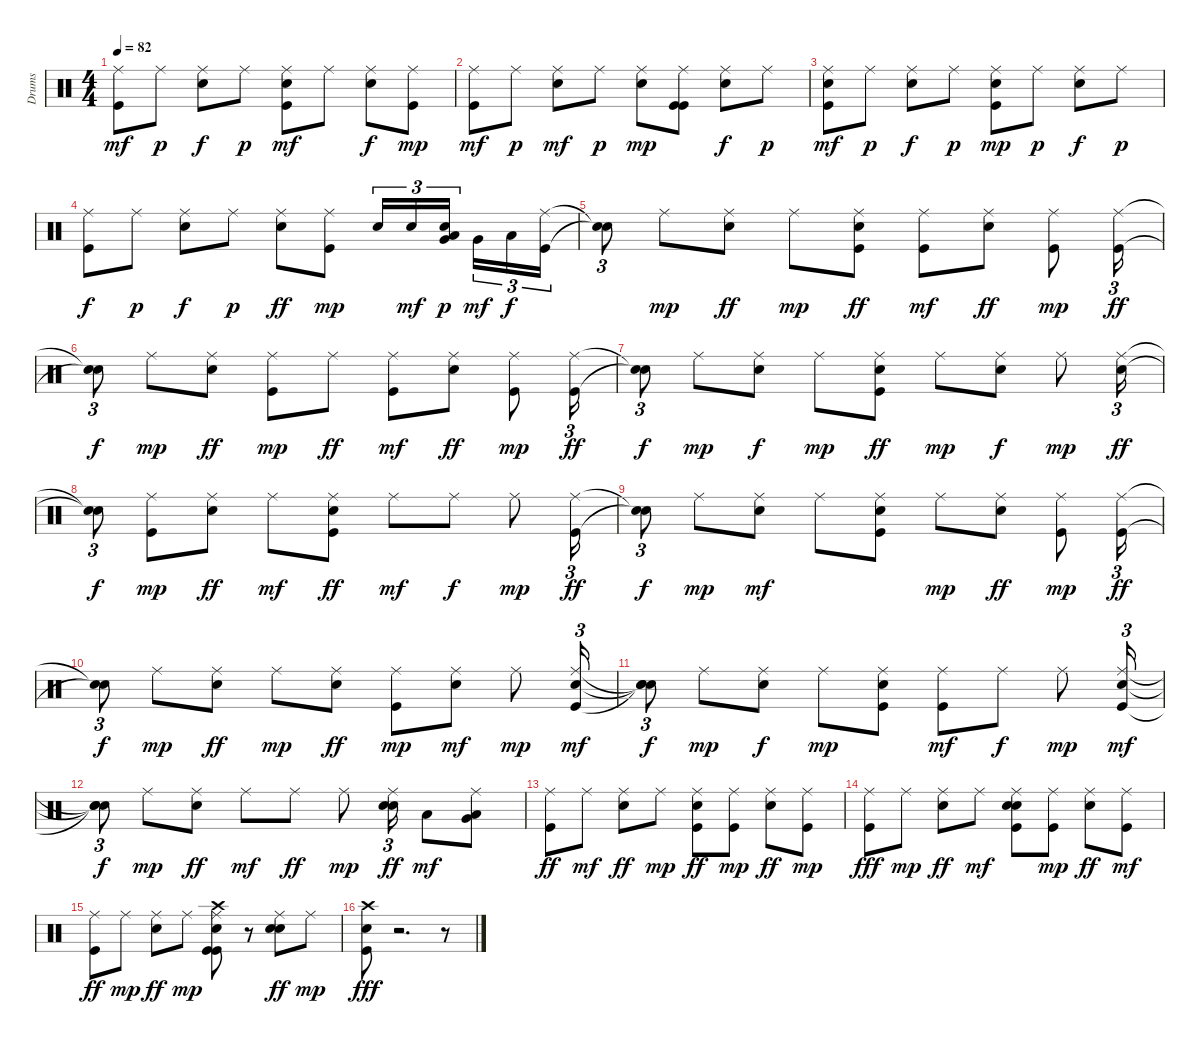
\track ("Drums" "Drums") {instrument percussion}
\staff {score}
\articulation defaults
\ts (4 4)
\tempo 82
\clef neutral
\ks c
("Kick (hit)" "Ride (middle)").8{dy mf} "Ride (middle)".8{dy p} ("Ride (middle)" "Electric Snare (hit)").8{dy f} "Ride (middle)".8{dy p} ("Electric Snare (hit)" "Ride (middle)" "Kick (hit)").8{dy mf} "Ride (middle)".8 ("Ride (middle)" "Electric Snare (hit)").8{dy f} ("Ride (middle)" "Kick (hit)").8{dy mp} |
("Ride (middle)" "Kick (hit)").8{dy mf} "Ride (middle)".8{dy p} ("Ride (middle)" "Electric Snare (hit)").8{dy mf} "Ride (middle)".8{dy p} ("Electric Snare (hit)" "Ride (middle)").8{dy mp} ("Kick (hit)" "Ride (middle)" "Kick (hit)").8 ("Electric Snare (hit)" "Ride (middle)").8{dy f} "Ride (middle)".8{dy p} |
("Electric Snare (hit)" "Ride (middle)" "Kick (hit)").8{dy mf} "Ride (middle)".8{dy p} ("Ride (middle)" "Electric Snare (hit)").8{dy f} "Ride (middle)".8{dy p} ("Electric Snare (hit)" "Ride (middle)" "Kick (hit)").8{dy mp} "Ride (middle)".8{dy p} ("Electric Snare (hit)" "Ride (middle)").8{dy f} "Ride (middle)".8{dy p} |
("Ride (middle)" "Kick (hit)").8{dy f} "Ride (middle)".8{dy p} ("Ride (middle)" "Electric Snare (hit)").8{dy f} "Ride (middle)".8{dy p} ("Electric Snare (hit)" "Ride (middle)").8{dy ff} ("Kick (hit)" "Ride (middle)").8{dy mp} "Electric Snare (hit)".16{tu (3 2)} "Electric Snare (hit)".16{tu (3 2) dy mf} ("Electric Snare (hit)" "Low Tom (hit)" "Very Low Tom (hit)").16{tu (3 2) dy p beam splitsecondary} "Very Low Tom (hit)".16{tu (3 2) dy mf} "Low Floor Tom (hit)".16{tu (3 2) dy f} ("Ride (middle)" "Kick (hit)").16{tu (3 2)} |
("Snare (hit)"{t} "Snare (hit)"{t}).8{tu (3 2)} "Ride (middle)".8{dy mp} ("Ride (middle)" "Electric Snare (hit)").8{dy ff} "Ride (middle)".8{dy mp} ("Electric Snare (hit)" "Kick (hit)" "Ride (middle)").8{dy ff} ("Kick (hit)" "Ride (middle)").8{dy mf} ("Electric Snare (hit)" "Ride (middle)").8{dy ff} ("Ride (middle)" "Kick (hit)").8{dy mp} ("Ride (middle)" "Kick (hit)").16{tu (3 2) dy ff} |
("Snare (hit)"{t} "Snare (hit)"{t}).8{tu (3 2) dy f} "Ride (middle)".8{dy mp} ("Ride (middle)" "Electric Snare (hit)").8{dy ff} ("Ride (middle)" "Kick (hit)").8{dy mp} "Ride (middle)".8{dy ff} ("Ride (middle)" "Kick (hit)").8{dy mf} ("Ride (middle)" "Electric Snare (hit)").8{dy ff} ("Kick (hit)" "Ride (middle)").8{dy mp} ("Ride (middle)" "Kick (hit)").16{tu (3 2) dy ff} |
("Snare (hit)"{t} "Snare (hit)"{t}).8{tu (3 2) dy f} "Ride (middle)".8{dy mp} ("Ride (middle)" "Electric Snare (hit)").8{dy f} "Ride (middle)".8{dy mp} ("Electric Snare (hit)" "Ride (middle)" "Kick (hit)").8{dy ff} "Ride (middle)".8{dy mp} ("Ride (middle)" "Electric Snare (hit)").8{dy f} "Ride (middle)".8{dy mp} ("Electric Snare (hit)" "Ride (middle)").16{tu (3 2) dy ff} |
("Snare (hit)"{t} "Snare (hit)"{t}).8{tu (3 2) dy f} ("Kick (hit)" "Ride (middle)").8{dy mp} ("Electric Snare (hit)" "Ride (middle)").8{dy ff} "Ride (middle)".8{dy mf} ("Electric Snare (hit)" "Ride (middle)" "Kick (hit)").8{dy ff} "Ride (middle)".8{dy mf} "Ride (middle)".8{dy f} "Ride (middle)".8{dy mp} ("Ride (middle)" "Kick (hit)").16{tu (3 2) dy ff} |
("Snare (hit)"{t} "Snare (hit)"{t}).8{tu (3 2) dy f} "Ride (middle)".8{dy mp} ("Ride (middle)" "Electric Snare (hit)").8{dy mf} "Ride (middle)".8 ("Electric Snare (hit)" "Ride (middle)" "Kick (hit)").8 "Ride (middle)".8{dy mp} ("Ride (middle)" "Electric Snare (hit)").8{dy ff} ("Ride (middle)" "Kick (hit)").8{dy mp} ("Ride (middle)" "Kick (hit)").16{tu (3 2) dy ff} |
("Snare (hit)"{t} "Snare (hit)"{t}).8{tu (3 2) dy f} "Ride (middle)".8{dy mp} ("Ride (middle)" "Electric Snare (hit)").8{dy ff} "Ride (middle)".8{dy mp} ("Electric Snare (hit)" "Ride (middle)").8{dy ff} ("Kick (hit)" "Ride (middle)").8{dy mp} ("Electric Snare (hit)" "Ride (middle)").8{dy mf} "Ride (middle)".8{dy mp} ("Electric Snare (hit)" "Ride (middle)" "Kick (hit)").16{tu (3 2) dy mf} |
("Snare (hit)"{t} "Snare (hit)"{t} "Snare (hit)"{t}).8{tu (3 2) dy f} "Ride (middle)".8{dy mp} ("Ride (middle)" "Electric Snare (hit)").8{dy f} "Ride (middle)".8{dy mp} ("Electric Snare (hit)" "Ride (middle)" "Kick (hit)").8 ("Ride (middle)" "Kick (hit)").8{dy mf} "Ride (middle)".8{dy f} "Ride (middle)".8{dy mp} ("Electric Snare (hit)" "Ride (middle)" "Kick (hit)").16{tu (3 2) dy mf} |
("Snare (hit)"{t} "Snare (hit)"{t} "Snare (hit)"{t}).8{tu (3 2) dy f} "Ride (middle)".8{dy mp} ("Ride (middle)" "Electric Snare (hit)").8{dy ff} "Ride (middle)".8{dy mf} "Ride (middle)".8{dy ff} "Ride (middle)".8{dy mp} ("Electric Snare (hit)" "Ride (middle)" "Electric Snare (hit)").16{tu (3 2) dy ff} "Low Tom (hit)".8{dy mf} ("Very Low Tom (hit)" "Low Floor Tom (hit)" "Ride (middle)").8 |
("Ride (middle)" "Kick (hit)").8{dy ff} "Ride (middle)".8{dy mf} ("Ride (middle)" "Electric Snare (hit)").8{dy ff} "Ride (middle)".8{dy mp} ("Electric Snare (hit)" "Kick (hit)" "Ride (middle)").8{dy ff} ("Ride (middle)" "Kick (hit)").8{dy mp} ("Electric Snare (hit)" "Ride (middle)").8{dy ff} ("Ride (middle)" "Kick (hit)").8{dy mp} |
("Ride (middle)" "Kick (hit)").8{dy fff} "Ride (middle)".8{dy mp} ("Ride (middle)" "Electric Snare (hit)").8{dy ff} "Ride (middle)".8{dy mf} ("Electric Snare (hit)" "Ride (middle)" "Kick (hit)" "Electric Snare (hit)").8 ("Ride (middle)" "Kick (hit)").8{dy mp} ("Ride (middle)" "Electric Snare (hit)").8{dy ff} ("Ride (middle)" "Kick (hit)").8{dy mf} |
("Ride (middle)" "Kick (hit)").8{dy ff} "Ride (middle)".8{dy mp} ("Electric Snare (hit)" "Ride (middle)").8{dy ff} "Ride (middle)".8{dy mp} ("Electric Snare (hit)" "Ride (middle)" "Kick (hit)" "Crash high (hit)" "Kick (hit)").8 r.8 ("Electric Snare (hit)" "Ride (middle)" "Electric Snare (hit)").8{dy ff} "Ride (middle)".8{dy mp} |
("Electric Snare (hit)" "Crash high (hit)" "Kick (hit)").8{dy fff} r.2{d} r.8
